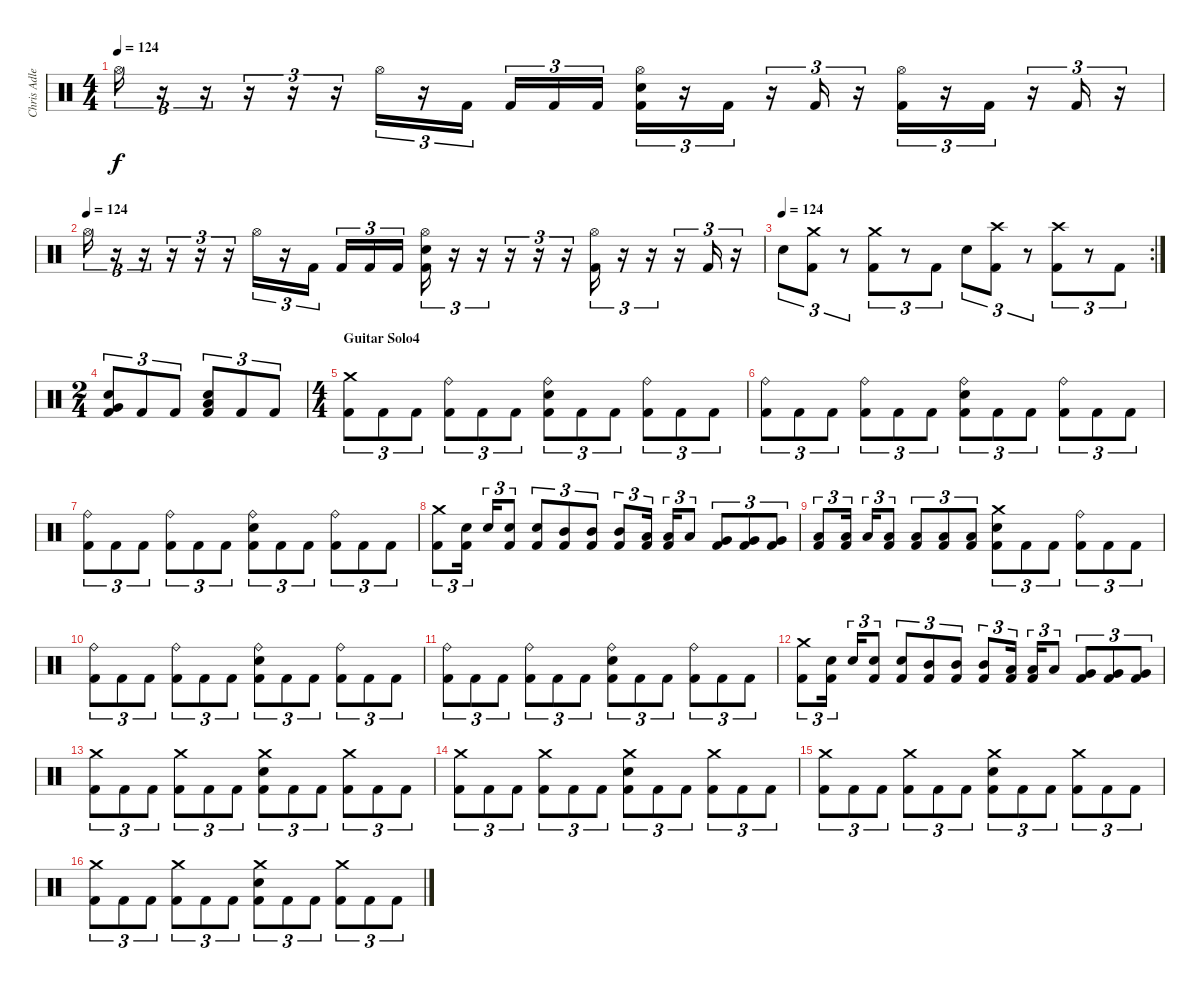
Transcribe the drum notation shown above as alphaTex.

\track ("Chris Adler" "Chris Adle") {instrument percussion}
\staff {score}
\articulation defaults
\ts (4 4)
\tempo 124
\clef neutral
\ks c "Hi-Hat (open)".16{tu (3 2) dy f}
r.16{tu (3 2)} r.16{tu (3 2)} r.16{tu (3 2)} r.16{tu (3 2)} r.16{tu (3 2)} "Hi-Hat (open)".16{tu (3 2)} r.16{tu (3 2)} "Kick (hit) 2".16{tu (3 2)} "Kick (hit) 2".16{tu (3 2)} "Kick (hit) 2".16{tu (3 2)} "Kick (hit) 2".16{tu (3 2)} ("Hi-Hat (open)" "Snare (hit) 2" "Kick (hit) 2").16{tu (3 2)} r.16{tu (3 2)} "Kick (hit) 2".16{tu (3 2)} r.16{tu (3 2)} "Kick (hit) 2".16{tu (3 2)} r.16{tu (3 2)} ("Hi-Hat (open)" "Kick (hit) 2").16{tu (3 2)} r.16{tu (3 2)} "Kick (hit) 2".16{tu (3 2)} r.16{tu (3 2)} "Kick (hit) 2".16{tu (3 2)} r.16{tu (3 2)} |
\tempo (124)
"Hi-Hat (open)".16{tu (3 2)} r.16{tu (3 2)} r.16{tu (3 2)} r.16{tu (3 2)} r.16{tu (3 2)} r.16{tu (3 2)} "Hi-Hat (open)".16{tu (3 2)} r.16{tu (3 2)} "Kick (hit) 2".16{tu (3 2)} "Kick (hit) 2".16{tu (3 2)} "Kick (hit) 2".16{tu (3 2)} "Kick (hit) 2".16{tu (3 2)} ("Hi-Hat (open)" "Snare (hit) 2" "Kick (hit) 2").16{tu (3 2)} r.16{tu (3 2)} r.16{tu (3 2)} r.16{tu (3 2)} r.16{tu (3 2)} r.16{tu (3 2)} ("Hi-Hat (open)" "Kick (hit) 2").16{tu (3 2)} r.16{tu (3 2)} r.16{tu (3 2)} r.16{tu (3 2)} "Kick (hit) 2".16{tu (3 2)} r.16{tu (3 2)} |
\rc 2
\tempo (124)
"Snare (hit) 2".8{tu (3 2)} ("Crash medium (hit)" "Kick (hit) 2").8{tu (3 2)} r.8{tu (3 2)} ("Crash medium (hit)" "Kick (hit) 2").8{tu (3 2)} r.8{tu (3 2)} "Kick (hit) 2".8{tu (3 2)} "Snare (hit) 2".8{tu (3 2)} ("Crash high (hit)" "Kick (hit) 2").8{tu (3 2)} r.8{tu (3 2)} ("Crash high (hit)" "Kick (hit) 2").8{tu (3 2)} r.8{tu (3 2)} "Kick (hit) 2".8{tu (3 2)} |
\ts (2 4)
("Snare (hit) 2" "Very Low Tom (hit)" "Kick (hit) 2").8{tu (3 2)} "Kick (hit) 2".8{tu (3 2)} "Kick (hit) 2".8{tu (3 2)} ("Low Tom (hit)" "Snare (hit) 2" "Kick (hit) 2").8{tu (3 2)} "Kick (hit) 2".8{tu (3 2)} "Kick (hit) 2".8{tu (3 2)} |
\ts (4 4)
\section ("" "Guitar Solo4")
("Crash medium (hit)" "Kick (hit) 2").8{tu (3 2)} "Kick (hit) 2".8{tu (3 2)} "Kick (hit) 2".8{tu (3 2)} ("Ride (bell)" "Kick (hit) 2").8{tu (3 2)} "Kick (hit) 2".8{tu (3 2)} "Kick (hit) 2".8{tu (3 2)} ("Ride (bell)" "Snare (hit) 2" "Kick (hit) 2").8{tu (3 2)} "Kick (hit) 2".8{tu (3 2)} "Kick (hit) 2".8{tu (3 2)} ("Ride (bell)" "Kick (hit) 2").8{tu (3 2)} "Kick (hit) 2".8{tu (3 2)} "Kick (hit) 2".8{tu (3 2)} |
("Ride (bell)" "Kick (hit) 2").8{tu (3 2)} "Kick (hit) 2".8{tu (3 2)} "Kick (hit) 2".8{tu (3 2)} ("Ride (bell)" "Kick (hit) 2").8{tu (3 2)} "Kick (hit) 2".8{tu (3 2)} "Kick (hit) 2".8{tu (3 2)} ("Ride (bell)" "Snare (hit) 2" "Kick (hit) 2").8{tu (3 2)} "Kick (hit) 2".8{tu (3 2)} "Kick (hit) 2".8{tu (3 2)} ("Ride (bell)" "Kick (hit) 2").8{tu (3 2)} "Kick (hit) 2".8{tu (3 2)} "Kick (hit) 2".8{tu (3 2)} |
("Ride (bell)" "Kick (hit) 2").8{tu (3 2)} "Kick (hit) 2".8{tu (3 2)} "Kick (hit) 2".8{tu (3 2)} ("Ride (bell)" "Kick (hit) 2").8{tu (3 2)} "Kick (hit) 2".8{tu (3 2)} "Kick (hit) 2".8{tu (3 2)} ("Ride (bell)" "Snare (hit) 2" "Kick (hit) 2").8{tu (3 2)} "Kick (hit) 2".8{tu (3 2)} "Kick (hit) 2".8{tu (3 2)} ("Ride (bell)" "Kick (hit) 2").8{tu (3 2)} "Kick (hit) 2".8{tu (3 2)} "Kick (hit) 2".8{tu (3 2)} |
("Crash medium (hit)" "Kick (hit) 2").8{tu (3 2)} ("Snare (hit) 2" "Kick (hit) 2").16{tu (3 2)} "Snare (hit) 2".16{tu (3 2)} ("Snare (hit) 2" "Kick (hit) 2").8{tu (3 2)} ("Snare (hit) 2" "Kick (hit) 2").8{tu (3 2)} ("Mid Tom (hit)" "Kick (hit) 2").8{tu (3 2)} ("Mid Tom (hit)" "Kick (hit) 2").8{tu (3 2)} ("Mid Tom (hit)" "Kick (hit) 2").8{tu (3 2)} ("Low Tom (hit)" "Kick (hit) 2").16{tu (3 2)} ("Low Tom (hit)" "Kick (hit) 2").16{tu (3 2)} "Low Tom (hit)".8{tu (3 2)} ("Very Low Tom (hit)" "Kick (hit) 2").8{tu (3 2)} ("Very Low Tom (hit)" "Kick (hit) 2").8{tu (3 2)} ("Very Low Tom (hit)" "Kick (hit) 2").8{tu (3 2)} |
("Low Floor Tom (hit)" "Kick (hit) 2").8{tu (3 2)} ("Low Floor Tom (hit)" "Kick (hit) 2").16{tu (3 2)} "Low Floor Tom (hit)".16{tu (3 2)} ("Low Floor Tom (hit)" "Kick (hit) 2").8{tu (3 2)} ("Low Floor Tom (hit)" "Kick (hit) 2").8{tu (3 2)} ("Low Floor Tom (hit)" "Kick (hit) 2").8{tu (3 2)} ("Low Floor Tom (hit)" "Kick (hit) 2").8{tu (3 2)} ("Crash medium (hit)" "Snare (hit) 2" "Kick (hit) 2").8{tu (3 2)} "Kick (hit) 2".8{tu (3 2)} "Kick (hit) 2".8{tu (3 2)} ("Ride (bell)" "Kick (hit) 2").8{tu (3 2)} "Kick (hit) 2".8{tu (3 2)} "Kick (hit) 2".8{tu (3 2)} |
("Ride (bell)" "Kick (hit) 2").8{tu (3 2)} "Kick (hit) 2".8{tu (3 2)} "Kick (hit) 2".8{tu (3 2)} ("Ride (bell)" "Kick (hit) 2").8{tu (3 2)} "Kick (hit) 2".8{tu (3 2)} "Kick (hit) 2".8{tu (3 2)} ("Ride (bell)" "Snare (hit) 2" "Kick (hit) 2").8{tu (3 2)} "Kick (hit) 2".8{tu (3 2)} "Kick (hit) 2".8{tu (3 2)} ("Ride (bell)" "Kick (hit) 2").8{tu (3 2)} "Kick (hit) 2".8{tu (3 2)} "Kick (hit) 2".8{tu (3 2)} |
("Ride (bell)" "Kick (hit) 2").8{tu (3 2)} "Kick (hit) 2".8{tu (3 2)} "Kick (hit) 2".8{tu (3 2)} ("Ride (bell)" "Kick (hit) 2").8{tu (3 2)} "Kick (hit) 2".8{tu (3 2)} "Kick (hit) 2".8{tu (3 2)} ("Ride (bell)" "Snare (hit) 2" "Kick (hit) 2").8{tu (3 2)} "Kick (hit) 2".8{tu (3 2)} "Kick (hit) 2".8{tu (3 2)} ("Ride (bell)" "Kick (hit) 2").8{tu (3 2)} "Kick (hit) 2".8{tu (3 2)} "Kick (hit) 2".8{tu (3 2)} |
("Crash medium (hit)" "Kick (hit) 2").8{tu (3 2)} ("Snare (hit) 2" "Kick (hit) 2").16{tu (3 2)} "Snare (hit) 2".16{tu (3 2)} ("Snare (hit) 2" "Kick (hit) 2").8{tu (3 2)} ("Snare (hit) 2" "Kick (hit) 2").8{tu (3 2)} ("Mid Tom (hit)" "Kick (hit) 2").8{tu (3 2)} ("Mid Tom (hit)" "Kick (hit) 2").8{tu (3 2)} ("Mid Tom (hit)" "Kick (hit) 2").8{tu (3 2)} ("Low Tom (hit)" "Kick (hit) 2").16{tu (3 2)} ("Low Tom (hit)" "Kick (hit) 2").16{tu (3 2)} "Low Tom (hit)".8{tu (3 2)} ("Very Low Tom (hit)" "Kick (hit) 2").8{tu (3 2)} ("Very Low Tom (hit)" "Kick (hit) 2").8{tu (3 2)} ("Very Low Tom (hit)" "Kick (hit) 2").8{tu (3 2)} |
("Crash medium (hit)" "Kick (hit) 2").8{tu (3 2)} "Kick (hit) 2".8{tu (3 2)} "Kick (hit) 2".8{tu (3 2)} ("Crash medium (hit)" "Kick (hit) 2").8{tu (3 2)} "Kick (hit) 2".8{tu (3 2)} "Kick (hit) 2".8{tu (3 2)} ("Crash medium (hit)" "Snare (hit) 2" "Kick (hit) 2").8{tu (3 2)} "Kick (hit) 2".8{tu (3 2)} "Kick (hit) 2".8{tu (3 2)} ("Crash medium (hit)" "Kick (hit) 2").8{tu (3 2)} "Kick (hit) 2".8{tu (3 2)} "Kick (hit) 2".8{tu (3 2)} |
("Crash medium (hit)" "Kick (hit) 2").8{tu (3 2)} "Kick (hit) 2".8{tu (3 2)} "Kick (hit) 2".8{tu (3 2)} ("Crash medium (hit)" "Kick (hit) 2").8{tu (3 2)} "Kick (hit) 2".8{tu (3 2)} "Kick (hit) 2".8{tu (3 2)} ("Crash medium (hit)" "Snare (hit) 2" "Kick (hit) 2").8{tu (3 2)} "Kick (hit) 2".8{tu (3 2)} "Kick (hit) 2".8{tu (3 2)} ("Crash medium (hit)" "Kick (hit) 2").8{tu (3 2)} "Kick (hit) 2".8{tu (3 2)} "Kick (hit) 2".8{tu (3 2)} |
("Crash medium (hit)" "Kick (hit) 2").8{tu (3 2)} "Kick (hit) 2".8{tu (3 2)} "Kick (hit) 2".8{tu (3 2)} ("Crash medium (hit)" "Kick (hit) 2").8{tu (3 2)} "Kick (hit) 2".8{tu (3 2)} "Kick (hit) 2".8{tu (3 2)} ("Crash medium (hit)" "Snare (hit) 2" "Kick (hit) 2").8{tu (3 2)} "Kick (hit) 2".8{tu (3 2)} "Kick (hit) 2".8{tu (3 2)} ("Crash medium (hit)" "Kick (hit) 2").8{tu (3 2)} "Kick (hit) 2".8{tu (3 2)} "Kick (hit) 2".8{tu (3 2)} |
("Crash medium (hit)" "Kick (hit) 2").8{tu (3 2)} "Kick (hit) 2".8{tu (3 2)} "Kick (hit) 2".8{tu (3 2)} ("Crash medium (hit)" "Kick (hit) 2").8{tu (3 2)} "Kick (hit) 2".8{tu (3 2)} "Kick (hit) 2".8{tu (3 2)} ("Crash medium (hit)" "Snare (hit) 2" "Kick (hit) 2").8{tu (3 2)} "Kick (hit) 2".8{tu (3 2)} "Kick (hit) 2".8{tu (3 2)} ("Crash medium (hit)" "Kick (hit) 2").8{tu (3 2)} "Kick (hit) 2".8{tu (3 2)} "Kick (hit) 2".8{tu (3 2)}
